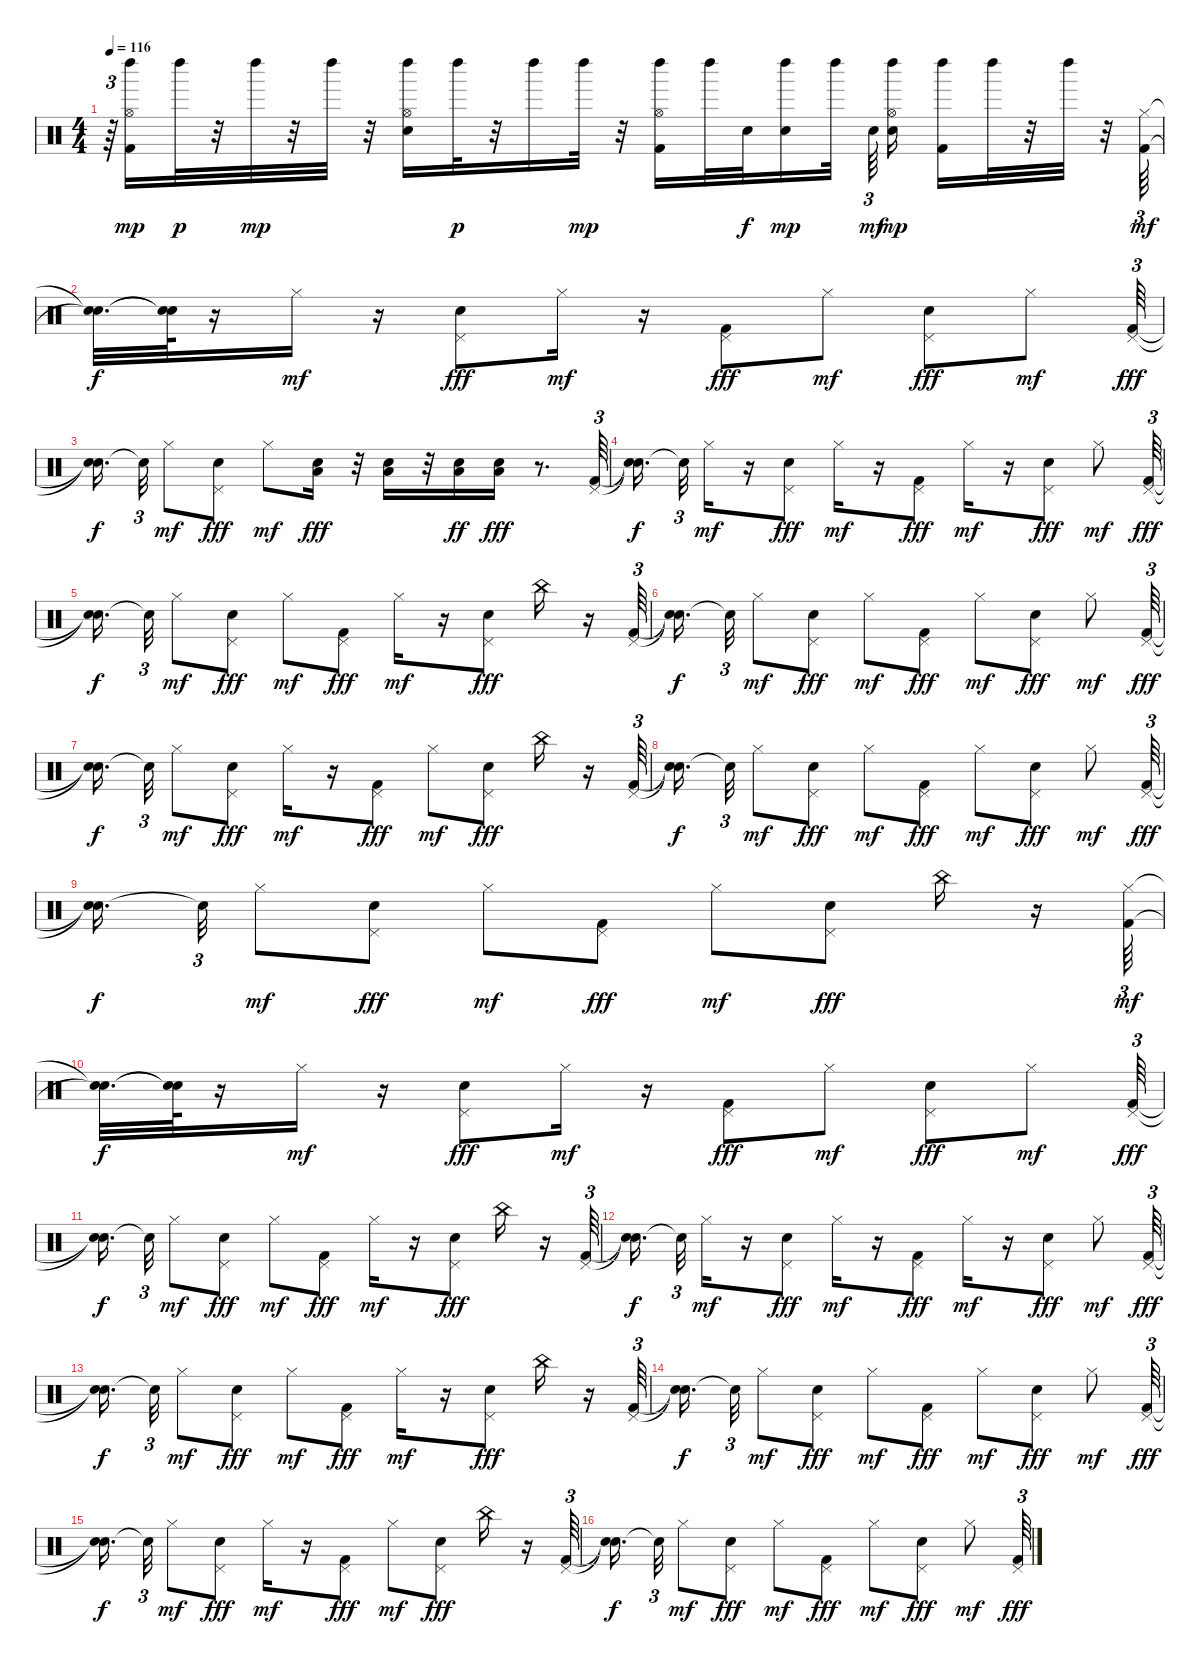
\track "" {instrument percussion}
\staff {score}
\articulation defaults
\ts (4 4)
\tempo 116
\clef neutral
\ks c
r.64{tu (3 2) dy p} ("Kick (hit) 2" "Hi-Hat (open)" "Left Maraca (hit)").16{dy mp} "Left Maraca (hit)".32{dy p} r.32 "Left Maraca (hit)".32{dy mp} r.32 "Left Maraca (hit)".32 r.32 ("Snare (hit) 2" "Hi-Hat (open)" "Left Maraca (hit)").16 "Left Maraca (hit)".32{dy p} r.32 "Left Maraca (hit)".16 "Left Maraca (hit)".32{dy mp} r.32 ("Kick (hit) 2" "Hi-Hat (open)" "Left Maraca (hit)").16 "Left Maraca (hit)".32 "Snare (hit) 2".32{dy f} ("Snare (hit) 2" "Left Maraca (hit)").16{dy mp} "Left Maraca (hit)".32{beam splitsecondary} "Snare (hit) 2".64{tu (3 2) dy mf} ("Snare (hit) 2" "Hi-Hat (open)" "Left Maraca (hit)").16{dy mp} ("Kick (hit) 2" "Left Maraca (hit)").16 "Left Maraca (hit)".32 r.32 "Left Maraca (hit)".32 r.32 ("Kick (hit) 2" "Hi-Hat (closed)").64{tu (3 2) dy mf} |
("Snare (hit)"{t} "Snare (hit)"{t}).32{d dy f} ("Snare (hit)"{t} "Snare (hit)"{t}).64 r.16 "Hi-Hat (closed)".16{dy mf} r.16 ("Snare (hit) 2" "Pedal Hi-Hat (hit)").8{dy fff} "Hi-Hat (closed)".16{dy mf} r.16 ("Kick (hit) 2" "Pedal Hi-Hat (hit)").8{dy fff} "Hi-Hat (closed)".8{dy mf} ("Snare (hit) 2" "Pedal Hi-Hat (hit)").8{dy fff} "Hi-Hat (closed)".8{dy mf} ("Kick (hit) 2" "Pedal Hi-Hat (hit)").64{tu (3 2) dy fff} |
("Snare (hit)"{t} "Snare (hit)"{t}).16{d dy f beam splitsecondary} "Snare (hit)"{t}.32{tu (3 2)} "Hi-Hat (closed)".8{dy mf} ("Snare (hit) 2" "Pedal Hi-Hat (hit)").8{dy fff} "Hi-Hat (closed)".8{dy mf} ("Low Floor Tom (hit)" "Snare (hit) 2").16{dy fff} r.32 ("Low Floor Tom (hit)" "Snare (hit) 2").16 r.32 ("Low Floor Tom (hit)" "Snare (hit) 2").16{dy ff} ("Low Floor Tom (hit)" "Snare (hit) 2").16{dy fff} r.8{d} ("Kick (hit) 2" "Pedal Hi-Hat (hit)").64{tu (3 2)} |
("Snare (hit)"{t} "Snare (hit)"{t}).16{d dy f beam splitsecondary} "Snare (hit)"{t}.32{tu (3 2)} "Hi-Hat (closed)".16{dy mf} r.16 ("Snare (hit) 2" "Pedal Hi-Hat (hit)").8{dy fff} "Hi-Hat (closed)".16{dy mf} r.16 ("Kick (hit) 2" "Pedal Hi-Hat (hit)").8{dy fff} "Hi-Hat (closed)".16{dy mf} r.16 ("Snare (hit) 2" "Pedal Hi-Hat (hit)").8{dy fff} "Hi-Hat (closed)".8{dy mf} ("Kick (hit) 2" "Pedal Hi-Hat (hit)").64{tu (3 2) dy fff} |
("Snare (hit)"{t} "Snare (hit)"{t}).16{d dy f beam splitsecondary} "Snare (hit)"{t}.32{tu (3 2)} "Hi-Hat (closed)".8{dy mf} ("Snare (hit) 2" "Pedal Hi-Hat (hit)").8{dy fff} "Hi-Hat (closed)".8{dy mf} ("Kick (hit) 2" "Pedal Hi-Hat (hit)").8{dy fff} "Hi-Hat (closed)".16{dy mf} r.16 ("Snare (hit) 2" "Pedal Hi-Hat (hit)").8{dy fff} "China (choke)".16 r.16 ("Kick (hit) 2" "Pedal Hi-Hat (hit)").64{tu (3 2)} |
("Snare (hit)"{t} "Snare (hit)"{t}).16{d dy f beam splitsecondary} "Snare (hit)"{t}.32{tu (3 2)} "Hi-Hat (closed)".8{dy mf} ("Snare (hit) 2" "Pedal Hi-Hat (hit)").8{dy fff} "Hi-Hat (closed)".8{dy mf} ("Kick (hit) 2" "Pedal Hi-Hat (hit)").8{dy fff} "Hi-Hat (closed)".8{dy mf} ("Snare (hit) 2" "Pedal Hi-Hat (hit)").8{dy fff} "Hi-Hat (closed)".8{dy mf} ("Kick (hit) 2" "Pedal Hi-Hat (hit)").64{tu (3 2) dy fff} |
("Snare (hit)"{t} "Snare (hit)"{t}).16{d dy f beam splitsecondary} "Snare (hit)"{t}.32{tu (3 2)} "Hi-Hat (closed)".8{dy mf} ("Snare (hit) 2" "Pedal Hi-Hat (hit)").8{dy fff} "Hi-Hat (closed)".16{dy mf} r.16 ("Kick (hit) 2" "Pedal Hi-Hat (hit)").8{dy fff} "Hi-Hat (closed)".8{dy mf} ("Snare (hit) 2" "Pedal Hi-Hat (hit)").8{dy fff} "China (choke)".16 r.16 ("Kick (hit) 2" "Pedal Hi-Hat (hit)").64{tu (3 2)} |
("Snare (hit)"{t} "Snare (hit)"{t}).16{d dy f beam splitsecondary} "Snare (hit)"{t}.32{tu (3 2)} "Hi-Hat (closed)".8{dy mf} ("Snare (hit) 2" "Pedal Hi-Hat (hit)").8{dy fff} "Hi-Hat (closed)".8{dy mf} ("Kick (hit) 2" "Pedal Hi-Hat (hit)").8{dy fff} "Hi-Hat (closed)".8{dy mf} ("Snare (hit) 2" "Pedal Hi-Hat (hit)").8{dy fff} "Hi-Hat (closed)".8{dy mf} ("Kick (hit) 2" "Pedal Hi-Hat (hit)").64{tu (3 2) dy fff} |
("Snare (hit)"{t} "Snare (hit)"{t}).16{d dy f beam splitsecondary} "Snare (hit)"{t}.32{tu (3 2)} "Hi-Hat (closed)".8{dy mf} ("Snare (hit) 2" "Pedal Hi-Hat (hit)").8{dy fff} "Hi-Hat (closed)".8{dy mf} ("Kick (hit) 2" "Pedal Hi-Hat (hit)").8{dy fff} "Hi-Hat (closed)".8{dy mf} ("Snare (hit) 2" "Pedal Hi-Hat (hit)").8{dy fff} "China (choke)".16 r.16 ("Kick (hit) 2" "Hi-Hat (closed)").64{tu (3 2) dy mf} |
("Snare (hit)"{t} "Snare (hit)"{t}).32{d dy f} ("Snare (hit)"{t} "Snare (hit)"{t}).64 r.16 "Hi-Hat (closed)".16{dy mf} r.16 ("Snare (hit) 2" "Pedal Hi-Hat (hit)").8{dy fff} "Hi-Hat (closed)".16{dy mf} r.16 ("Kick (hit) 2" "Pedal Hi-Hat (hit)").8{dy fff} "Hi-Hat (closed)".8{dy mf} ("Snare (hit) 2" "Pedal Hi-Hat (hit)").8{dy fff} "Hi-Hat (closed)".8{dy mf} ("Kick (hit) 2" "Pedal Hi-Hat (hit)").64{tu (3 2) dy fff} |
("Snare (hit)"{t} "Snare (hit)"{t}).16{d dy f beam splitsecondary} "Snare (hit)"{t}.32{tu (3 2)} "Hi-Hat (closed)".8{dy mf} ("Snare (hit) 2" "Pedal Hi-Hat (hit)").8{dy fff} "Hi-Hat (closed)".8{dy mf} ("Kick (hit) 2" "Pedal Hi-Hat (hit)").8{dy fff} "Hi-Hat (closed)".16{dy mf} r.16 ("Snare (hit) 2" "Pedal Hi-Hat (hit)").8{dy fff} "China (choke)".16 r.16 ("Kick (hit) 2" "Pedal Hi-Hat (hit)").64{tu (3 2)} |
("Snare (hit)"{t} "Snare (hit)"{t}).16{d dy f beam splitsecondary} "Snare (hit)"{t}.32{tu (3 2)} "Hi-Hat (closed)".16{dy mf} r.16 ("Snare (hit) 2" "Pedal Hi-Hat (hit)").8{dy fff} "Hi-Hat (closed)".16{dy mf} r.16 ("Kick (hit) 2" "Pedal Hi-Hat (hit)").8{dy fff} "Hi-Hat (closed)".16{dy mf} r.16 ("Snare (hit) 2" "Pedal Hi-Hat (hit)").8{dy fff} "Hi-Hat (closed)".8{dy mf} ("Kick (hit) 2" "Pedal Hi-Hat (hit)").64{tu (3 2) dy fff} |
("Snare (hit)"{t} "Snare (hit)"{t}).16{d dy f beam splitsecondary} "Snare (hit)"{t}.32{tu (3 2)} "Hi-Hat (closed)".8{dy mf} ("Snare (hit) 2" "Pedal Hi-Hat (hit)").8{dy fff} "Hi-Hat (closed)".8{dy mf} ("Kick (hit) 2" "Pedal Hi-Hat (hit)").8{dy fff} "Hi-Hat (closed)".16{dy mf} r.16 ("Snare (hit) 2" "Pedal Hi-Hat (hit)").8{dy fff} "China (choke)".16 r.16 ("Kick (hit) 2" "Pedal Hi-Hat (hit)").64{tu (3 2)} |
("Snare (hit)"{t} "Snare (hit)"{t}).16{d dy f beam splitsecondary} "Snare (hit)"{t}.32{tu (3 2)} "Hi-Hat (closed)".8{dy mf} ("Snare (hit) 2" "Pedal Hi-Hat (hit)").8{dy fff} "Hi-Hat (closed)".8{dy mf} ("Kick (hit) 2" "Pedal Hi-Hat (hit)").8{dy fff} "Hi-Hat (closed)".8{dy mf} ("Snare (hit) 2" "Pedal Hi-Hat (hit)").8{dy fff} "Hi-Hat (closed)".8{dy mf} ("Kick (hit) 2" "Pedal Hi-Hat (hit)").64{tu (3 2) dy fff} |
("Snare (hit)"{t} "Snare (hit)"{t}).16{d dy f beam splitsecondary} "Snare (hit)"{t}.32{tu (3 2)} "Hi-Hat (closed)".8{dy mf} ("Snare (hit) 2" "Pedal Hi-Hat (hit)").8{dy fff} "Hi-Hat (closed)".16{dy mf} r.16 ("Kick (hit) 2" "Pedal Hi-Hat (hit)").8{dy fff} "Hi-Hat (closed)".8{dy mf} ("Snare (hit) 2" "Pedal Hi-Hat (hit)").8{dy fff} "China (choke)".16 r.16 ("Kick (hit) 2" "Pedal Hi-Hat (hit)").64{tu (3 2)} |
("Snare (hit)"{t} "Snare (hit)"{t}).16{d dy f beam splitsecondary} "Snare (hit)"{t}.32{tu (3 2)} "Hi-Hat (closed)".8{dy mf} ("Snare (hit) 2" "Pedal Hi-Hat (hit)").8{dy fff} "Hi-Hat (closed)".8{dy mf} ("Kick (hit) 2" "Pedal Hi-Hat (hit)").8{dy fff} "Hi-Hat (closed)".8{dy mf} ("Snare (hit) 2" "Pedal Hi-Hat (hit)").8{dy fff} "Hi-Hat (closed)".8{dy mf} ("Kick (hit) 2" "Pedal Hi-Hat (hit)").64{tu (3 2) dy fff}
